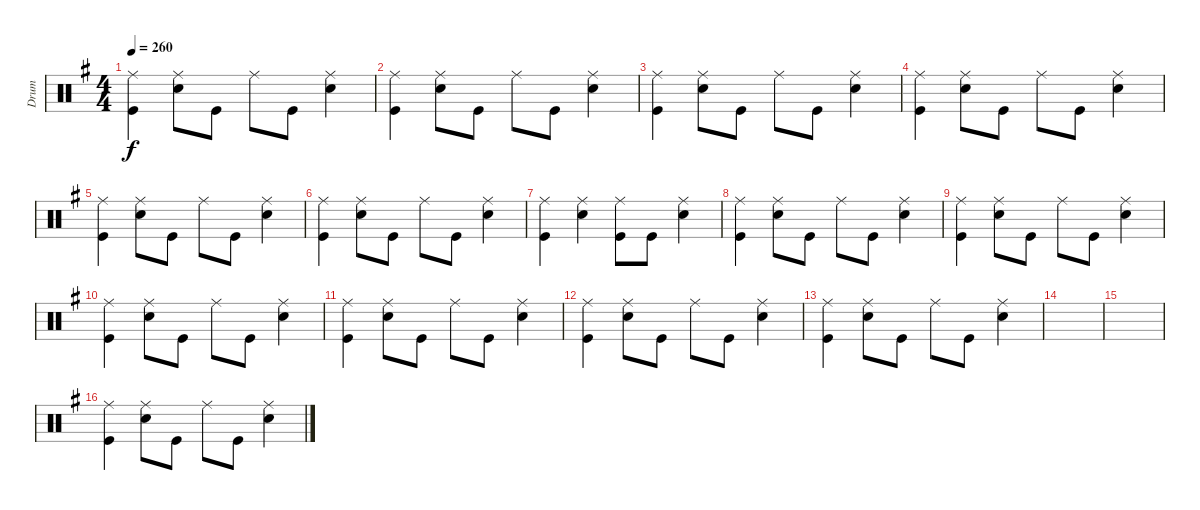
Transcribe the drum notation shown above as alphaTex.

\track ("Drum" "Drum") {instrument percussion}
\staff {score}
\articulation defaults
\ts (4 4)
\tempo 260
\clef neutral
\ks g
("Ride (middle)" "Kick (hit)").4{dy f} ("Ride (middle)" "Snare (hit) 2").8 "Kick (hit)".8 "Ride (middle)".8 "Kick (hit)".8 ("Ride (middle)" "Snare (hit) 2").4 |
("Ride (middle)" "Kick (hit)").4 ("Ride (middle)" "Snare (hit) 2").8 "Kick (hit)".8 "Ride (middle)".8 "Kick (hit)".8 ("Ride (middle)" "Snare (hit) 2").4 |
("Ride (middle)" "Kick (hit)").4 ("Ride (middle)" "Snare (hit) 2").8 "Kick (hit)".8 "Ride (middle)".8 "Kick (hit)".8 ("Ride (middle)" "Snare (hit) 2").4 |
("Ride (middle)" "Kick (hit)").4 ("Ride (middle)" "Snare (hit) 2").8 "Kick (hit)".8 "Ride (middle)".8 "Kick (hit)".8 ("Ride (middle)" "Snare (hit) 2").4 |
("Ride (middle)" "Kick (hit)").4 ("Ride (middle)" "Snare (hit) 2").8 "Kick (hit)".8 "Ride (middle)".8 "Kick (hit)".8 ("Ride (middle)" "Snare (hit) 2").4 |
("Ride (middle)" "Kick (hit)").4 ("Ride (middle)" "Snare (hit) 2").8 "Kick (hit)".8 "Ride (middle)".8 "Kick (hit)".8 ("Ride (middle)" "Snare (hit) 2").4 |
("Ride (middle)" "Kick (hit)").4 ("Ride (middle)" "Snare (hit) 2").4 ("Ride (middle)" "Kick (hit)").8 "Kick (hit)".8 ("Ride (middle)" "Snare (hit) 2").4 |
("Ride (middle)" "Kick (hit)").4 ("Ride (middle)" "Snare (hit) 2").8 "Kick (hit)".8 "Ride (middle)".8 "Kick (hit)".8 ("Ride (middle)" "Snare (hit) 2").4 |
("Ride (middle)" "Kick (hit)").4 ("Ride (middle)" "Snare (hit) 2").8 "Kick (hit)".8 "Ride (middle)".8 "Kick (hit)".8 ("Ride (middle)" "Snare (hit) 2").4 |
("Ride (middle)" "Kick (hit)").4 ("Ride (middle)" "Snare (hit) 2").8 "Kick (hit)".8 "Ride (middle)".8 "Kick (hit)".8 ("Ride (middle)" "Snare (hit) 2").4 |
("Ride (middle)" "Kick (hit)").4 ("Ride (middle)" "Snare (hit) 2").8 "Kick (hit)".8 "Ride (middle)".8 "Kick (hit)".8 ("Ride (middle)" "Snare (hit) 2").4 |
("Ride (middle)" "Kick (hit)").4 ("Ride (middle)" "Snare (hit) 2").8 "Kick (hit)".8 "Ride (middle)".8 "Kick (hit)".8 ("Ride (middle)" "Snare (hit) 2").4 |
("Ride (middle)" "Kick (hit)").4 ("Ride (middle)" "Snare (hit) 2").8 "Kick (hit)".8 "Ride (middle)".8 "Kick (hit)".8 ("Ride (middle)" "Snare (hit) 2").4 |
|
|
("Ride (middle)" "Kick (hit)").4 ("Ride (middle)" "Snare (hit) 2").8 "Kick (hit)".8 "Ride (middle)".8 "Kick (hit)".8 ("Ride (middle)" "Snare (hit) 2").4
